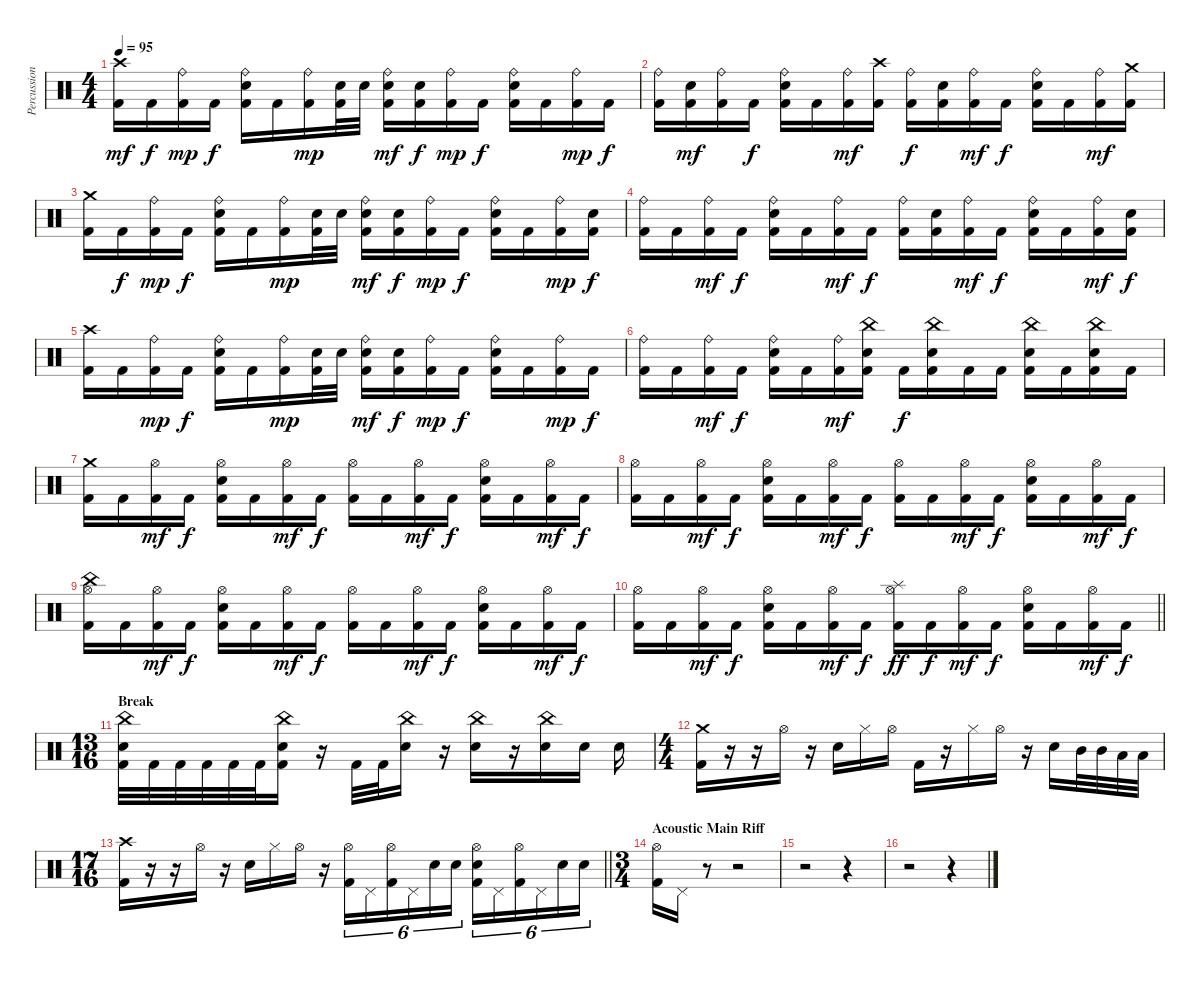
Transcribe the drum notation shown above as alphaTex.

\track ("Percussion" "Percussion") {instrument percussion}
\staff {score}
\articulation defaults
\ts (4 4)
\tempo 95
\clef neutral
\ks c
("Crash high (hit)" "Kick (hit) 2").16{dy mf} "Kick (hit) 2".16{dy f} ("Ride (bell)" "Kick (hit) 2").16{dy mp} "Kick (hit) 2".16{dy f} ("Ride (bell)" "Electric Snare (hit)" "Kick (hit) 2").16 "Kick (hit) 2".16 ("Ride (bell)" "Kick (hit) 2").16{dy mp} ("Electric Snare (hit)" "Kick (hit) 2").32 "Electric Snare (hit)".32 ("Ride (bell)" "Electric Snare (hit)" "Kick (hit) 2").16{dy mf} ("Electric Snare (hit)" "Kick (hit) 2").16{dy f} ("Ride (bell)" "Kick (hit) 2").16{dy mp} "Kick (hit) 2".16{dy f} ("Ride (bell)" "Electric Snare (hit)" "Kick (hit) 2").16 "Kick (hit) 2".16 ("Ride (bell)" "Kick (hit) 2").16{dy mp} "Kick (hit) 2".16{dy f} |
("Ride (bell)" "Kick (hit) 2").16 ("Electric Snare (hit)" "Kick (hit) 2").16{dy mf} ("Ride (bell)" "Kick (hit) 2").16 "Kick (hit) 2".16{dy f} ("Ride (bell)" "Electric Snare (hit)" "Kick (hit) 2").16 "Kick (hit) 2".16 ("Ride (bell)" "Kick (hit) 2").16{dy mf} ("Crash high (hit)" "Kick (hit) 2").16 ("Ride (bell)" "Kick (hit) 2").16{dy f} ("Electric Snare (hit)" "Kick (hit) 2").16 ("Ride (bell)" "Kick (hit) 2").16{dy mf} "Kick (hit) 2".16{dy f} ("Ride (bell)" "Electric Snare (hit)" "Kick (hit) 2").16 "Kick (hit) 2".16 ("Ride (bell)" "Kick (hit) 2").16{dy mf} ("Crash medium (hit)" "Kick (hit) 2").16 |
("Crash medium (hit)" "Kick (hit) 2").16 "Kick (hit) 2".16{dy f} ("Ride (bell)" "Kick (hit) 2").16{dy mp} "Kick (hit) 2".16{dy f} ("Ride (bell)" "Electric Snare (hit)" "Kick (hit) 2").16 "Kick (hit) 2".16 ("Ride (bell)" "Kick (hit) 2").16{dy mp} ("Electric Snare (hit)" "Kick (hit) 2").32 "Electric Snare (hit)".32 ("Ride (bell)" "Electric Snare (hit)" "Kick (hit) 2").16{dy mf} ("Electric Snare (hit)" "Kick (hit) 2").16{dy f} ("Ride (bell)" "Kick (hit) 2").16{dy mp} "Kick (hit) 2".16{dy f} ("Ride (bell)" "Electric Snare (hit)" "Kick (hit) 2").16 "Kick (hit) 2".16 ("Ride (bell)" "Kick (hit) 2").16{dy mp} ("Electric Snare (hit)" "Kick (hit) 2").16{dy f} |
("Ride (bell)" "Kick (hit) 2").16 "Kick (hit) 2".16 ("Ride (bell)" "Kick (hit) 2").16{dy mf} "Kick (hit) 2".16{dy f} ("Ride (bell)" "Electric Snare (hit)" "Kick (hit) 2").16 "Kick (hit) 2".16 ("Ride (bell)" "Kick (hit) 2").16{dy mf} "Kick (hit) 2".16{dy f} ("Ride (bell)" "Kick (hit) 2").16 ("Electric Snare (hit)" "Kick (hit) 2").16 ("Ride (bell)" "Kick (hit) 2").16{dy mf} "Kick (hit) 2".16{dy f} ("Ride (bell)" "Electric Snare (hit)" "Kick (hit) 2").16 "Kick (hit) 2".16 ("Ride (bell)" "Kick (hit) 2").16{dy mf} ("Electric Snare (hit)" "Kick (hit) 2").16{dy f} |
("Crash high (hit)" "Kick (hit) 2").16 "Kick (hit) 2".16 ("Ride (bell)" "Kick (hit) 2").16{dy mp} "Kick (hit) 2".16{dy f} ("Ride (bell)" "Electric Snare (hit)" "Kick (hit) 2").16 "Kick (hit) 2".16 ("Ride (bell)" "Kick (hit) 2").16{dy mp} ("Electric Snare (hit)" "Kick (hit) 2").32 "Electric Snare (hit)".32 ("Ride (bell)" "Electric Snare (hit)" "Kick (hit) 2").16{dy mf} ("Electric Snare (hit)" "Kick (hit) 2").16{dy f} ("Ride (bell)" "Kick (hit) 2").16{dy mp} "Kick (hit) 2".16{dy f} ("Ride (bell)" "Electric Snare (hit)" "Kick (hit) 2").16 "Kick (hit) 2".16 ("Ride (bell)" "Kick (hit) 2").16{dy mp} "Kick (hit) 2".16{dy f} |
("Ride (bell)" "Kick (hit) 2").16 "Kick (hit) 2".16 ("Ride (bell)" "Kick (hit) 2").16{dy mf} "Kick (hit) 2".16{dy f} ("Ride (bell)" "Electric Snare (hit)" "Kick (hit) 2").16 "Kick (hit) 2".16 ("Ride (bell)" "Kick (hit) 2").16{dy mf} ("China (hit)" "Electric Snare (hit)" "Kick (hit) 2").16 "Kick (hit) 2".16{dy f} ("China (hit)" "Electric Snare (hit)" "Kick (hit) 2").16 "Kick (hit) 2".16 "Kick (hit) 2".16 ("China (hit)" "Electric Snare (hit)" "Kick (hit) 2").16 "Kick (hit) 2".16 ("China (hit)" "Electric Snare (hit)" "Kick (hit) 2").16 "Kick (hit) 2".16 |
("Crash medium (hit)" "Kick (hit) 2").16 "Kick (hit) 2".16 ("Hi-Hat (open)" "Kick (hit) 2").16{dy mf} "Kick (hit) 2".16{dy f} ("Hi-Hat (open)" "Electric Snare (hit)" "Kick (hit) 2").16 "Kick (hit) 2".16 ("Hi-Hat (open)" "Kick (hit) 2").16{dy mf} "Kick (hit) 2".16{dy f} ("Hi-Hat (open)" "Kick (hit) 2").16 "Kick (hit) 2".16 ("Hi-Hat (open)" "Kick (hit) 2").16{dy mf} "Kick (hit) 2".16{dy f} ("Hi-Hat (open)" "Electric Snare (hit)" "Kick (hit) 2").16 "Kick (hit) 2".16 ("Hi-Hat (open)" "Kick (hit) 2").16{dy mf} "Kick (hit) 2".16{dy f} |
("Hi-Hat (open)" "Kick (hit) 2").16 "Kick (hit) 2".16 ("Hi-Hat (open)" "Kick (hit) 2").16{dy mf} "Kick (hit) 2".16{dy f} ("Hi-Hat (open)" "Electric Snare (hit)" "Kick (hit) 2").16 "Kick (hit) 2".16 ("Hi-Hat (open)" "Kick (hit) 2").16{dy mf} "Kick (hit) 2".16{dy f} ("Hi-Hat (open)" "Kick (hit) 2").16 "Kick (hit) 2".16 ("Hi-Hat (open)" "Kick (hit) 2").16{dy mf} "Kick (hit) 2".16{dy f} ("Hi-Hat (open)" "Electric Snare (hit)" "Kick (hit) 2").16 "Kick (hit) 2".16 ("Hi-Hat (open)" "Kick (hit) 2").16{dy mf} "Kick (hit) 2".16{dy f} |
("Hi-Hat (open)" "China (hit)" "Kick (hit) 2").16 "Kick (hit) 2".16 ("Hi-Hat (open)" "Kick (hit) 2").16{dy mf} "Kick (hit) 2".16{dy f} ("Hi-Hat (open)" "Electric Snare (hit)" "Kick (hit) 2").16 "Kick (hit) 2".16 ("Hi-Hat (open)" "Kick (hit) 2").16{dy mf} "Kick (hit) 2".16{dy f} ("Hi-Hat (open)" "Kick (hit) 2").16 "Kick (hit) 2".16 ("Hi-Hat (open)" "Kick (hit) 2").16{dy mf} "Kick (hit) 2".16{dy f} ("Hi-Hat (open)" "Electric Snare (hit)" "Kick (hit) 2").16 "Kick (hit) 2".16 ("Hi-Hat (open)" "Kick (hit) 2").16{dy mf} "Kick (hit) 2".16{dy f} |
\barLineRight lightlight
("Hi-Hat (open)" "Kick (hit) 2").16 "Kick (hit) 2".16 ("Hi-Hat (open)" "Kick (hit) 2").16{dy mf} "Kick (hit) 2".16{dy f} ("Hi-Hat (open)" "Electric Snare (hit)" "Kick (hit) 2").16 "Kick (hit) 2".16 ("Hi-Hat (open)" "Kick (hit) 2").16{dy mf} "Kick (hit) 2".16{dy f} ("Hi-Hat (open)" "Splash (hit)" "Kick (hit) 2").16{dy ff} "Kick (hit) 2".16{dy f} ("Hi-Hat (open)" "Kick (hit) 2").16{dy mf} "Kick (hit) 2".16{dy f} ("Hi-Hat (open)" "Electric Snare (hit)" "Kick (hit) 2").16 "Kick (hit) 2".16 ("Hi-Hat (open)" "Kick (hit) 2").16{dy mf} "Kick (hit) 2".16{dy f} |
\ts (13 16)
\section ("" "Break")
("China (hit)" "Electric Snare (hit)" "Kick (hit) 2").32 "Kick (hit) 2".32 "Kick (hit) 2".32 "Kick (hit) 2".32 "Kick (hit) 2".32 "Kick (hit) 2".32 ("China (hit)" "Electric Snare (hit)" "Kick (hit) 2").16 r.16 "Kick (hit) 2".32 "Kick (hit) 2".32 ("China (hit)" "Electric Snare (hit)").16 r.16 ("China (hit)" "Electric Snare (hit)").16 r.16 ("China (hit)" "Electric Snare (hit)").16 "Electric Snare (hit)".16 "Electric Snare (hit)".16 |
\ts (4 4)
("Crash medium (hit)" "Kick (hit) 2").16 r.16 r.16 "Hi-Hat (open)".16 r.16 "Electric Snare (hit)".16 "Hi-Hat (closed)".16 "Hi-Hat (open)".16 "Kick (hit) 2".16 r.16 "Hi-Hat (closed)".16 "Hi-Hat (open)".16 r.16 "Electric Snare (hit)".16 "Mid Tom (hit)".32 "Mid Tom (hit)".32 "Low Tom (hit)".32 "Low Tom (hit)".32 |
\ts (17 16)
\barLineRight lightlight
("Crash high (hit)" "Kick (hit) 2").16 r.16 r.16 "Hi-Hat (open)".16 r.16 "Electric Snare (hit)".16 "Hi-Hat (closed)".16 "Hi-Hat (open)".16 r.16 ("Hi-Hat (open)" "Kick (hit) 2").16{tu (6 4)} "Pedal Hi-Hat (hit)".16{tu (6 4)} ("Hi-Hat (open)" "Kick (hit) 2").16{tu (6 4)} "Pedal Hi-Hat (hit)".16{tu (6 4)} "Electric Snare (hit)".16{tu (6 4)} "Electric Snare (hit)".16{tu (6 4)} ("Hi-Hat (open)" "Electric Snare (hit)" "Kick (hit) 2").16{tu (6 4)} "Pedal Hi-Hat (hit)".16{tu (6 4)} ("Hi-Hat (open)" "Kick (hit) 2").16{tu (6 4)} "Pedal Hi-Hat (hit)".16{tu (6 4)} "Electric Snare (hit)".16{tu (6 4)} "Electric Snare (hit)".16{tu (6 4)} |
\ts (3 4)
\section ("" "Acoustic Main Riff")
("Hi-Hat (open)" "Kick (hit) 2").16 "Pedal Hi-Hat (hit)".16 r.8 r.2 |
r.2 r.4 |
r.2 r.4
